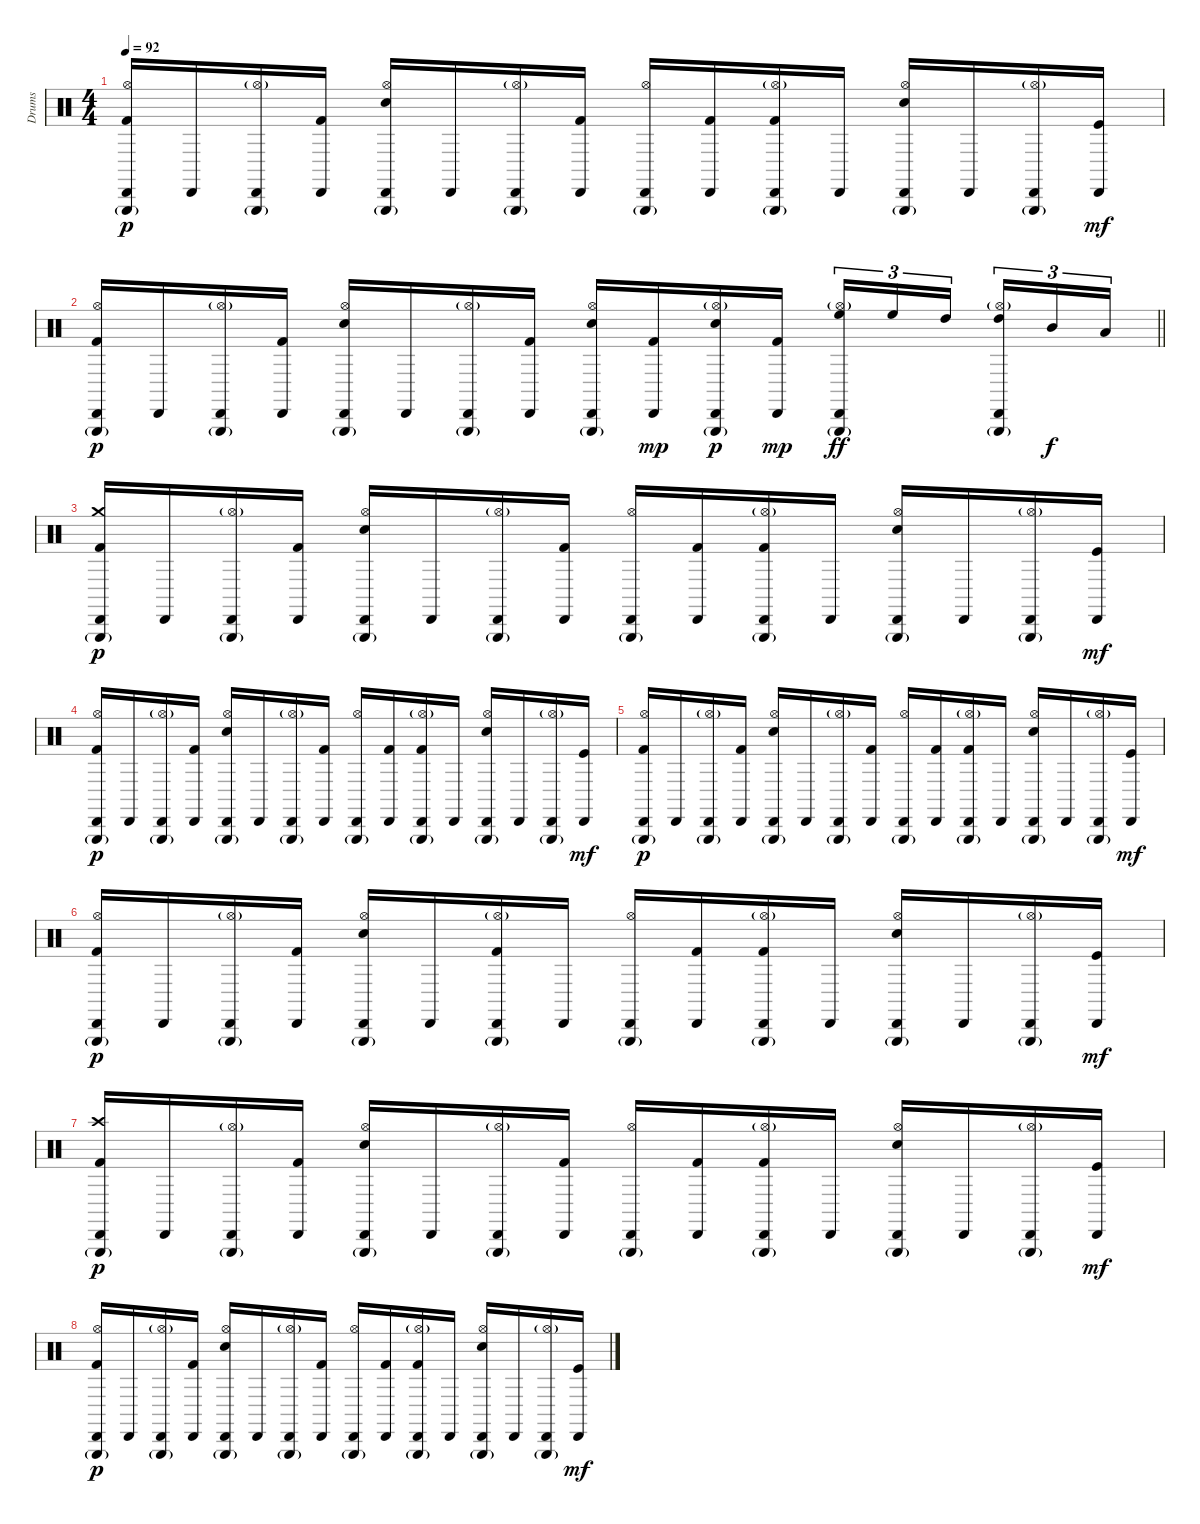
\track ("Drums" "Drums") {instrument percussion}
\staff {score}
\articulation defaults
\ts (4 4)
\tempo 92
\clef neutral
\ks c
("Triangle (hit)"{g} "Hi-Hat (open)" "Cabasa (hit)" "Kick (hit) 2").16{dy p} "Cabasa (hit)".16 ("Triangle (hit)"{g} "Hi-Hat (open)"{g} "Cabasa (hit)").16 ("Cabasa (hit)" "Kick (hit) 2").16 ("Triangle (hit)"{g} "Hi-Hat (open)" "Cabasa (hit)" "Electric Snare (hit)").16 "Cabasa (hit)".16 ("Triangle (hit)"{g} "Hi-Hat (open)"{g} "Cabasa (hit)").16 ("Cabasa (hit)" "Kick (hit) 2").16 ("Triangle (hit)"{g} "Hi-Hat (open)" "Cabasa (hit)").16 ("Cabasa (hit)" "Kick (hit) 2").16 ("Triangle (hit)"{g} "Hi-Hat (open)"{g} "Cabasa (hit)" "Kick (hit) 2").16 "Cabasa (hit)".16 ("Triangle (hit)"{g} "Hi-Hat (open)" "Cabasa (hit)" "Electric Snare (hit)").16 "Cabasa (hit)".16 ("Triangle (hit)"{g} "Hi-Hat (open)"{g} "Cabasa (hit)").16 ("Cabasa (hit)" "Kick (hit)").16{dy mf} |
\barLineRight lightlight
("Triangle (hit)"{g} "Hi-Hat (open)" "Cabasa (hit)" "Kick (hit) 2").16{dy p} "Cabasa (hit)".16 ("Triangle (hit)"{g} "Hi-Hat (open)"{g} "Cabasa (hit)").16 ("Cabasa (hit)" "Kick (hit) 2").16 ("Triangle (hit)"{g} "Hi-Hat (open)" "Cabasa (hit)" "Electric Snare (hit)").16 "Cabasa (hit)".16 ("Triangle (hit)"{g} "Hi-Hat (open)"{g} "Cabasa (hit)").16 ("Cabasa (hit)" "Kick (hit) 2").16 ("Triangle (hit)"{g} "Hi-Hat (open)" "Cabasa (hit)" "Electric Snare (hit)").16 ("Cabasa (hit)" "Kick (hit) 2").16{dy mp} ("Triangle (hit)"{g} "Hi-Hat (open)"{g} "Cabasa (hit)" "Electric Snare (hit)").16{dy p} ("Cabasa (hit)" "Kick (hit) 2").16{dy mp} ("Triangle (hit)"{g} "Hi-Hat (open)"{g} "Cabasa (hit)" "High Floor Tom (hit)").16{tu (3 2) dy ff} "High Floor Tom (hit)".16{tu (3 2)} "High Tom (hit)".16{tu (3 2)} ("Triangle (hit)"{g} "Hi-Hat (open)"{g} "Cabasa (hit)" "High Tom (hit)").16{tu (3 2)} "Mid Tom (hit)".16{tu (3 2) dy f} "Low Tom (hit)".16{tu (3 2)} |
("Crash medium (hit)" "Triangle (hit)"{g} "Cabasa (hit)" "Kick (hit) 2").16{dy p} "Cabasa (hit)".16 ("Triangle (hit)"{g} "Hi-Hat (open)"{g} "Cabasa (hit)").16 ("Cabasa (hit)" "Kick (hit) 2").16 ("Triangle (hit)"{g} "Hi-Hat (open)" "Cabasa (hit)" "Electric Snare (hit)").16 "Cabasa (hit)".16 ("Triangle (hit)"{g} "Hi-Hat (open)"{g} "Cabasa (hit)").16 ("Cabasa (hit)" "Kick (hit) 2").16 ("Triangle (hit)"{g} "Hi-Hat (open)" "Cabasa (hit)").16 ("Cabasa (hit)" "Kick (hit) 2").16 ("Triangle (hit)"{g} "Hi-Hat (open)"{g} "Cabasa (hit)" "Kick (hit) 2").16 "Cabasa (hit)".16 ("Triangle (hit)"{g} "Hi-Hat (open)" "Cabasa (hit)" "Electric Snare (hit)").16 "Cabasa (hit)".16 ("Triangle (hit)"{g} "Hi-Hat (open)"{g} "Cabasa (hit)").16 ("Cabasa (hit)" "Kick (hit)").16{dy mf} |
("Triangle (hit)"{g} "Hi-Hat (open)" "Cabasa (hit)" "Kick (hit) 2").16{dy p} "Cabasa (hit)".16 ("Triangle (hit)"{g} "Hi-Hat (open)"{g} "Cabasa (hit)").16 ("Cabasa (hit)" "Kick (hit) 2").16 ("Triangle (hit)"{g} "Hi-Hat (open)" "Cabasa (hit)" "Electric Snare (hit)").16 "Cabasa (hit)".16 ("Triangle (hit)"{g} "Hi-Hat (open)"{g} "Cabasa (hit)").16 ("Cabasa (hit)" "Kick (hit) 2").16 ("Triangle (hit)"{g} "Hi-Hat (open)" "Cabasa (hit)").16 ("Cabasa (hit)" "Kick (hit) 2").16 ("Triangle (hit)"{g} "Hi-Hat (open)"{g} "Cabasa (hit)" "Kick (hit) 2").16 "Cabasa (hit)".16 ("Triangle (hit)"{g} "Hi-Hat (open)" "Cabasa (hit)" "Electric Snare (hit)").16 "Cabasa (hit)".16 ("Triangle (hit)"{g} "Hi-Hat (open)"{g} "Cabasa (hit)").16 ("Cabasa (hit)" "Kick (hit)").16{dy mf} |
("Triangle (hit)"{g} "Hi-Hat (open)" "Cabasa (hit)" "Kick (hit) 2").16{dy p} "Cabasa (hit)".16 ("Triangle (hit)"{g} "Hi-Hat (open)"{g} "Cabasa (hit)").16 ("Cabasa (hit)" "Kick (hit) 2").16 ("Triangle (hit)"{g} "Hi-Hat (open)" "Cabasa (hit)" "Electric Snare (hit)").16 "Cabasa (hit)".16 ("Triangle (hit)"{g} "Hi-Hat (open)"{g} "Cabasa (hit)").16 ("Cabasa (hit)" "Kick (hit) 2").16 ("Triangle (hit)"{g} "Hi-Hat (open)" "Cabasa (hit)").16 ("Cabasa (hit)" "Kick (hit) 2").16 ("Triangle (hit)"{g} "Hi-Hat (open)"{g} "Cabasa (hit)" "Kick (hit) 2").16 "Cabasa (hit)".16 ("Triangle (hit)"{g} "Hi-Hat (open)" "Cabasa (hit)" "Electric Snare (hit)").16 "Cabasa (hit)".16 ("Triangle (hit)"{g} "Hi-Hat (open)"{g} "Cabasa (hit)").16 ("Cabasa (hit)" "Kick (hit)").16{dy mf} |
("Triangle (hit)"{g} "Hi-Hat (open)" "Cabasa (hit)" "Kick (hit) 2").16{dy p} "Cabasa (hit)".16 ("Triangle (hit)"{g} "Hi-Hat (open)"{g} "Cabasa (hit)").16 ("Cabasa (hit)" "Kick (hit) 2").16 ("Triangle (hit)"{g} "Hi-Hat (open)" "Cabasa (hit)" "Electric Snare (hit)").16 "Cabasa (hit)".16 ("Triangle (hit)"{g} "Hi-Hat (open)"{g} "Cabasa (hit)" "Kick (hit) 2").16 "Cabasa (hit)".16 ("Triangle (hit)"{g} "Hi-Hat (open)" "Cabasa (hit)").16 ("Cabasa (hit)" "Kick (hit) 2").16 ("Triangle (hit)"{g} "Hi-Hat (open)"{g} "Cabasa (hit)" "Kick (hit) 2").16 "Cabasa (hit)".16 ("Triangle (hit)"{g} "Hi-Hat (open)" "Cabasa (hit)" "Electric Snare (hit)").16 "Cabasa (hit)".16 ("Triangle (hit)"{g} "Hi-Hat (open)"{g} "Cabasa (hit)").16 ("Cabasa (hit)" "Kick (hit)").16{dy mf} |
("Crash high (hit)" "Triangle (hit)"{g} "Cabasa (hit)" "Kick (hit) 2").16{dy p} "Cabasa (hit)".16 ("Triangle (hit)"{g} "Hi-Hat (open)"{g} "Cabasa (hit)").16 ("Cabasa (hit)" "Kick (hit) 2").16 ("Triangle (hit)"{g} "Hi-Hat (open)" "Cabasa (hit)" "Electric Snare (hit)").16 "Cabasa (hit)".16 ("Triangle (hit)"{g} "Hi-Hat (open)"{g} "Cabasa (hit)").16 ("Cabasa (hit)" "Kick (hit) 2").16 ("Triangle (hit)"{g} "Hi-Hat (open)" "Cabasa (hit)").16 ("Cabasa (hit)" "Kick (hit) 2").16 ("Triangle (hit)"{g} "Hi-Hat (open)"{g} "Cabasa (hit)" "Kick (hit) 2").16 "Cabasa (hit)".16 ("Triangle (hit)"{g} "Hi-Hat (open)" "Cabasa (hit)" "Electric Snare (hit)").16 "Cabasa (hit)".16 ("Triangle (hit)"{g} "Hi-Hat (open)"{g} "Cabasa (hit)").16 ("Cabasa (hit)" "Kick (hit)").16{dy mf} |
("Triangle (hit)"{g} "Hi-Hat (open)" "Cabasa (hit)" "Kick (hit) 2").16{dy p} "Cabasa (hit)".16 ("Triangle (hit)"{g} "Hi-Hat (open)"{g} "Cabasa (hit)").16 ("Cabasa (hit)" "Kick (hit) 2").16 ("Triangle (hit)"{g} "Hi-Hat (open)" "Cabasa (hit)" "Electric Snare (hit)").16 "Cabasa (hit)".16 ("Triangle (hit)"{g} "Hi-Hat (open)"{g} "Cabasa (hit)").16 ("Cabasa (hit)" "Kick (hit) 2").16 ("Triangle (hit)"{g} "Hi-Hat (open)" "Cabasa (hit)").16 ("Cabasa (hit)" "Kick (hit) 2").16 ("Triangle (hit)"{g} "Hi-Hat (open)"{g} "Cabasa (hit)" "Kick (hit) 2").16 "Cabasa (hit)".16 ("Triangle (hit)"{g} "Hi-Hat (open)" "Cabasa (hit)" "Electric Snare (hit)").16 "Cabasa (hit)".16 ("Triangle (hit)"{g} "Hi-Hat (open)"{g} "Cabasa (hit)").16 ("Cabasa (hit)" "Kick (hit)").16{dy mf}
